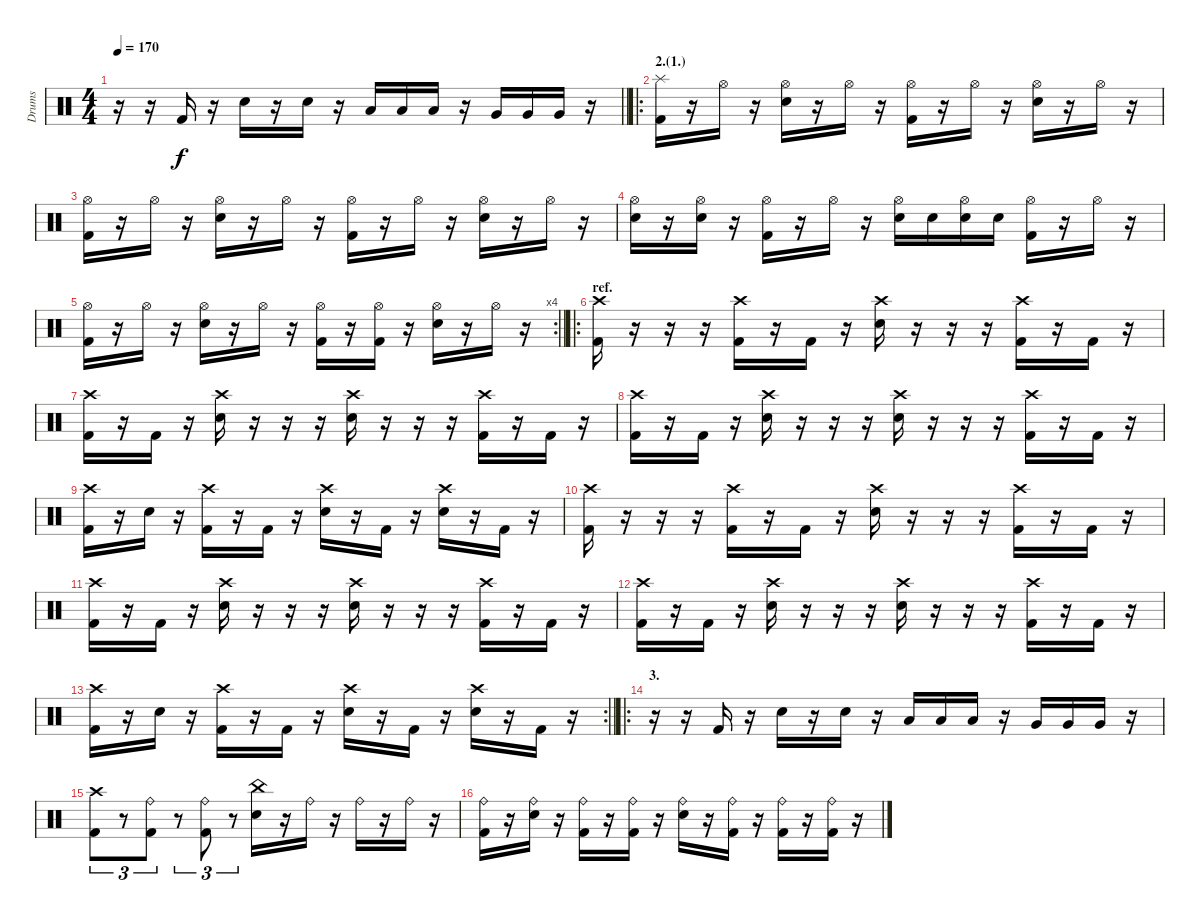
\track ("Drums" "Drums") {instrument percussion}
\staff {score}
\articulation defaults
\ts (4 4)
\tempo 170
\clef neutral
\barLineRight lightlight
\ks c
r.16{dy f} r.16 "Kick (hit) 2".16 r.16 "Electric Snare (hit)".16 r.16 "Electric Snare (hit)".16 r.16 "Low Tom (hit)".16 "Low Tom (hit)".16 "Low Tom (hit)".16 r.16 "Very Low Tom (hit)".16 "Very Low Tom (hit)".16 "Very Low Tom (hit)".16 r.16 |
\ro
\section ("" "2.(1.)")
("Splash (hit)" "Kick (hit) 2").16 r.16 "Hi-Hat (open)".16 r.16 ("Hi-Hat (open)" "Electric Snare (hit)").16 r.16 "Hi-Hat (open)".16 r.16 ("Hi-Hat (open)" "Kick (hit) 2").16 r.16 "Hi-Hat (open)".16 r.16 ("Hi-Hat (open)" "Electric Snare (hit)").16 r.16 "Hi-Hat (open)".16 r.16 |
("Hi-Hat (open)" "Kick (hit) 2").16 r.16 "Hi-Hat (open)".16 r.16 ("Hi-Hat (open)" "Electric Snare (hit)").16 r.16 "Hi-Hat (open)".16 r.16 ("Hi-Hat (open)" "Kick (hit) 2").16 r.16 "Hi-Hat (open)".16 r.16 ("Hi-Hat (open)" "Electric Snare (hit)").16 r.16 "Hi-Hat (open)".16 r.16 |
("Hi-Hat (open)" "Electric Snare (hit)").16 r.16 ("Hi-Hat (open)" "Electric Snare (hit)").16 r.16 ("Hi-Hat (open)" "Kick (hit) 2").16 r.16 "Hi-Hat (open)".16 r.16 ("Hi-Hat (open)" "Electric Snare (hit)").16 "Electric Snare (hit)".16 ("Hi-Hat (open)" "Electric Snare (hit)").16 "Electric Snare (hit)".16 ("Hi-Hat (open)" "Kick (hit) 2").16 r.16 "Hi-Hat (open)".16 r.16 |
\rc 4
\barLineRight lightlight
("Hi-Hat (open)" "Kick (hit) 2").16 r.16 "Hi-Hat (open)".16 r.16 ("Hi-Hat (open)" "Electric Snare (hit)").16 r.16 "Hi-Hat (open)".16 r.16 ("Hi-Hat (open)" "Kick (hit) 2").16 r.16 ("Hi-Hat (open)" "Kick (hit) 2").16 r.16 ("Hi-Hat (open)" "Electric Snare (hit)").16 r.16 "Hi-Hat (open)".16 r.16 |
\ro
\section ("" "ref.")
("Crash high (hit)" "Kick (hit) 2").16 r.16 r.16 r.16 ("Crash high (hit)" "Kick (hit) 2").16 r.16 "Kick (hit) 2".16 r.16 ("Crash high (hit)" "Electric Snare (hit)").16 r.16 r.16 r.16 ("Crash high (hit)" "Kick (hit) 2").16 r.16 "Kick (hit) 2".16 r.16 |
("Crash high (hit)" "Kick (hit) 2").16 r.16 "Kick (hit) 2".16 r.16 ("Crash high (hit)" "Electric Snare (hit)").16 r.16 r.16 r.16 ("Crash high (hit)" "Electric Snare (hit)").16 r.16 r.16 r.16 ("Crash high (hit)" "Kick (hit) 2").16 r.16 "Kick (hit) 2".16 r.16 |
("Crash high (hit)" "Kick (hit) 2").16 r.16 "Kick (hit) 2".16 r.16 ("Crash high (hit)" "Electric Snare (hit)").16 r.16 r.16 r.16 ("Crash high (hit)" "Electric Snare (hit)").16 r.16 r.16 r.16 ("Crash high (hit)" "Kick (hit) 2").16 r.16 "Kick (hit) 2".16 r.16 |
("Crash high (hit)" "Kick (hit) 2").16 r.16 "Electric Snare (hit)".16 r.16 ("Crash high (hit)" "Kick (hit) 2").16 r.16 "Kick (hit) 2".16 r.16 ("Crash high (hit)" "Electric Snare (hit)").16 r.16 "Kick (hit) 2".16 r.16 ("Crash high (hit)" "Electric Snare (hit)").16 r.16 "Kick (hit) 2".16 r.16 |
("Crash high (hit)" "Kick (hit) 2").16 r.16 r.16 r.16 ("Crash high (hit)" "Kick (hit) 2").16 r.16 "Kick (hit) 2".16 r.16 ("Crash high (hit)" "Electric Snare (hit)").16 r.16 r.16 r.16 ("Crash high (hit)" "Kick (hit) 2").16 r.16 "Kick (hit) 2".16 r.16 |
("Crash high (hit)" "Kick (hit) 2").16 r.16 "Kick (hit) 2".16 r.16 ("Crash high (hit)" "Electric Snare (hit)").16 r.16 r.16 r.16 ("Crash high (hit)" "Electric Snare (hit)").16 r.16 r.16 r.16 ("Crash high (hit)" "Kick (hit) 2").16 r.16 "Kick (hit) 2".16 r.16 |
("Crash high (hit)" "Kick (hit) 2").16 r.16 "Kick (hit) 2".16 r.16 ("Crash high (hit)" "Electric Snare (hit)").16 r.16 r.16 r.16 ("Crash high (hit)" "Electric Snare (hit)").16 r.16 r.16 r.16 ("Crash high (hit)" "Kick (hit) 2").16 r.16 "Kick (hit) 2".16 r.16 |
\rc 2
\barLineRight lightlight
("Crash high (hit)" "Kick (hit) 2").16 r.16 "Electric Snare (hit)".16 r.16 ("Crash high (hit)" "Kick (hit) 2").16 r.16 "Kick (hit) 2".16 r.16 ("Crash high (hit)" "Electric Snare (hit)").16 r.16 "Kick (hit) 2".16 r.16 ("Crash high (hit)" "Electric Snare (hit)").16 r.16 "Kick (hit) 2".16 r.16 |
\ro
\section ("" "3.")
r.16 r.16 "Kick (hit) 2".16 r.16 "Electric Snare (hit)".16 r.16 "Electric Snare (hit)".16 r.16 "Low Tom (hit)".16 "Low Tom (hit)".16 "Low Tom (hit)".16 r.16 "Very Low Tom (hit)".16 "Very Low Tom (hit)".16 "Very Low Tom (hit)".16 r.16 |
("Crash high (hit)" "Kick (hit) 2").8{tu (3 2)} r.8{tu (3 2)} ("Ride (bell)" "Kick (hit) 2").8{tu (3 2)} r.8{tu (3 2)} ("Ride (bell)" "Kick (hit) 2").8{tu (3 2)} r.8{tu (3 2)} ("China (hit)" "Electric Snare (hit)").16 r.16 "Ride (bell)".16 r.16 "Ride (bell)".16 r.16 "Ride (bell)".16 r.16 |
("Ride (bell)" "Kick (hit) 2").16 r.16 ("Ride (bell)" "Electric Snare (hit)").16 r.16 ("Ride (bell)" "Kick (hit) 2").16 r.16 ("Ride (bell)" "Kick (hit) 2").16 r.16 ("Ride (bell)" "Electric Snare (hit)").16 r.16 ("Ride (bell)" "Kick (hit) 2").16 r.16 ("Ride (bell)" "Kick (hit) 2").16 r.16 ("Ride (bell)" "Kick (hit) 2").16 r.16
